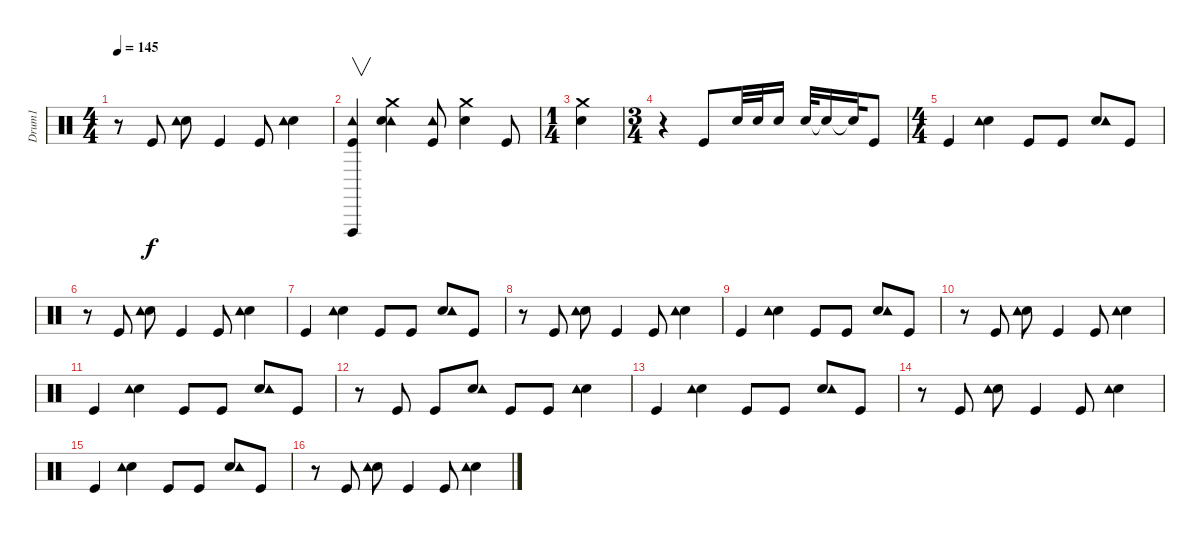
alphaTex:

\track ("Drum1" "Drum1") {instrument percussion}
\staff {score}
\articulation defaults
\ts (4 4)
\tempo 145
\clef neutral
\ks c
r.8{dy f} "Kick (hit)".8 ("Snare (hit) 2" "Tambourine (hit)").8 "Kick (hit)".4 "Kick (hit)".8 ("Snare (hit) 2" "Tambourine (hit)").4 |
("Tambourine (hit)" "Kick (hit)" "Vibraslap (hit)").4{v} ("Tambourine (hit)" "Snare (hit) 2" "Crash medium (hit)").4 ("Tambourine (hit)" "Kick (hit)").8 ("Snare (hit) 2" "Crash medium (hit)").4 "Kick (hit)".8 |
\ts (1 4)
("Snare (hit) 2" "Crash medium (hit)").4 |
\ts (3 4)
r.4 "Kick (hit)".8 "Snare (hit) 2".32 "Snare (hit) 2".32 "Snare (hit) 2".16 "Snare (hit) 2".32 "Snare (hit) 2"{t}.16 "Snare (hit)"{t}.32 "Kick (hit)".8 |
\ts (4 4)
"Kick (hit)".4 ("Snare (hit) 2" "Tambourine (hit)").4 "Kick (hit)".8 "Kick (hit)".8 ("Snare (hit) 2" "Tambourine (hit)").8 "Kick (hit)".8 |
r.8 "Kick (hit)".8 ("Snare (hit) 2" "Tambourine (hit)").8 "Kick (hit)".4 "Kick (hit)".8 ("Snare (hit) 2" "Tambourine (hit)").4 |
"Kick (hit)".4 ("Snare (hit) 2" "Tambourine (hit)").4 "Kick (hit)".8 "Kick (hit)".8 ("Snare (hit) 2" "Tambourine (hit)").8 "Kick (hit)".8 |
r.8 "Kick (hit)".8 ("Snare (hit) 2" "Tambourine (hit)").8 "Kick (hit)".4 "Kick (hit)".8 ("Snare (hit) 2" "Tambourine (hit)").4 |
"Kick (hit)".4 ("Snare (hit) 2" "Tambourine (hit)").4 "Kick (hit)".8 "Kick (hit)".8 ("Snare (hit) 2" "Tambourine (hit)").8 "Kick (hit)".8 |
r.8 "Kick (hit)".8 ("Snare (hit) 2" "Tambourine (hit)").8 "Kick (hit)".4 "Kick (hit)".8 ("Snare (hit) 2" "Tambourine (hit)").4 |
"Kick (hit)".4 ("Snare (hit) 2" "Tambourine (hit)").4 "Kick (hit)".8 "Kick (hit)".8 ("Snare (hit) 2" "Tambourine (hit)").8 "Kick (hit)".8 |
r.8 "Kick (hit)".8 "Kick (hit)".8 ("Snare (hit) 2" "Tambourine (hit)").8 "Kick (hit)".8 "Kick (hit)".8 ("Snare (hit) 2" "Tambourine (hit)").4 |
"Kick (hit)".4 ("Snare (hit) 2" "Tambourine (hit)").4 "Kick (hit)".8 "Kick (hit)".8 ("Snare (hit) 2" "Tambourine (hit)").8 "Kick (hit)".8 |
r.8 "Kick (hit)".8 ("Snare (hit) 2" "Tambourine (hit)").8 "Kick (hit)".4 "Kick (hit)".8 ("Snare (hit) 2" "Tambourine (hit)").4 |
"Kick (hit)".4 ("Snare (hit) 2" "Tambourine (hit)").4 "Kick (hit)".8 "Kick (hit)".8 ("Snare (hit) 2" "Tambourine (hit)").8 "Kick (hit)".8 |
r.8 "Kick (hit)".8 ("Snare (hit) 2" "Tambourine (hit)").8 "Kick (hit)".4 "Kick (hit)".8 ("Snare (hit) 2" "Tambourine (hit)").4
